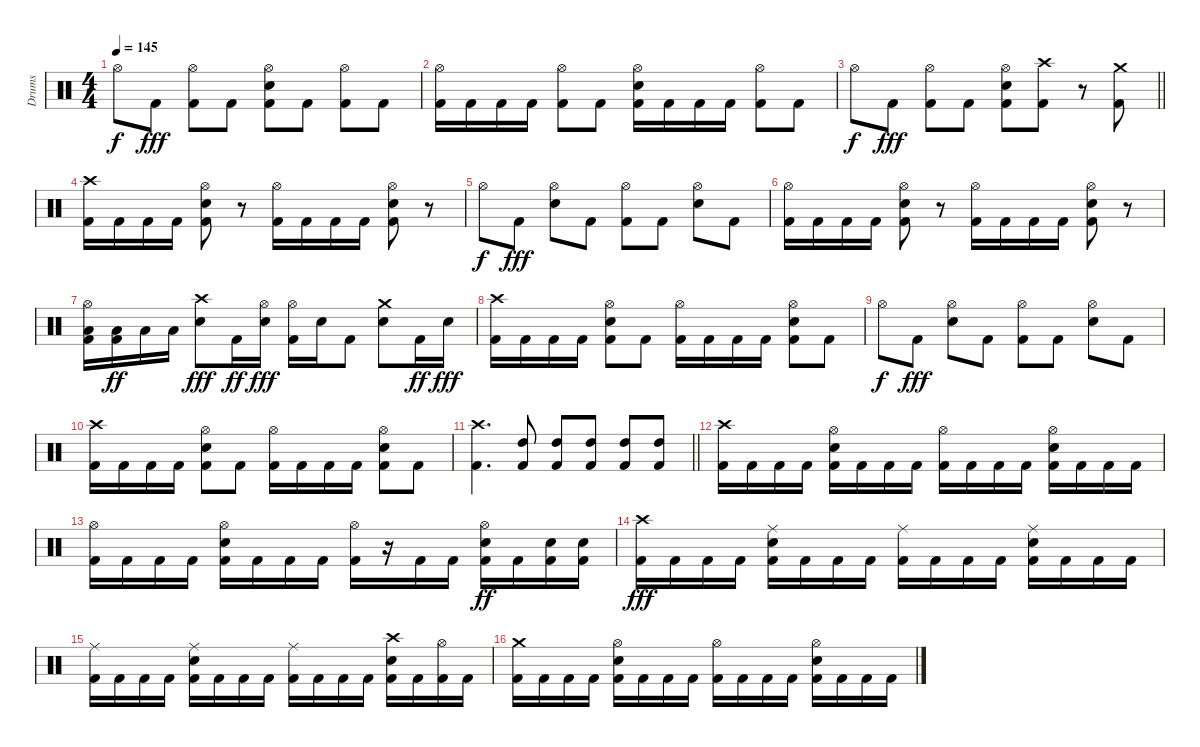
\track ("Drums" "Drums") {instrument percussion}
\staff {score}
\articulation defaults
\ts (4 4)
\tempo 145
\clef neutral
\ks c "Hi-Hat (open)".8{dy f} "Kick (hit) 2".8{dy fff}
("Hi-Hat (open)" "Kick (hit) 2").8 "Kick (hit) 2".8 ("Hi-Hat (open)" "Snare (hit) 2" "Kick (hit) 2").8 "Kick (hit) 2".8 ("Hi-Hat (open)" "Kick (hit) 2").8 "Kick (hit) 2".8 |
("Hi-Hat (open)" "Kick (hit) 2").16 "Kick (hit) 2".16 "Kick (hit) 2".16 "Kick (hit) 2".16 ("Hi-Hat (open)" "Kick (hit) 2").8 "Kick (hit) 2".8 ("Hi-Hat (open)" "Snare (hit) 2" "Kick (hit) 2").16 "Kick (hit) 2".16 "Kick (hit) 2".16 "Kick (hit) 2".16 ("Hi-Hat (open)" "Kick (hit) 2").8 "Kick (hit) 2".8 |
\barLineRight lightlight "Hi-Hat (open)".8{dy f} "Kick (hit) 2".8{dy fff}
("Hi-Hat (open)" "Kick (hit) 2").8 "Kick (hit) 2".8 ("Hi-Hat (open)" "Snare (hit) 2" "Kick (hit) 2").8 ("Crash high (hit)" "Kick (hit) 2").8 r.8{volume 0} ("Crash medium (hit)" "Kick (hit) 2").8{volume 16} |
("Crash high (hit)" "Kick (hit) 2").16 "Kick (hit) 2".16 "Kick (hit) 2".16 "Kick (hit) 2".16 ("Hi-Hat (open)" "Snare (hit) 2" "Kick (hit) 2").8 r.8 ("Hi-Hat (open)" "Kick (hit) 2").16 "Kick (hit) 2".16 "Kick (hit) 2".16 "Kick (hit) 2".16 ("Hi-Hat (open)" "Snare (hit) 2" "Kick (hit) 2").8 r.8 |
"Hi-Hat (open)".8{dy f} "Kick (hit) 2".8{dy fff} ("Hi-Hat (open)" "Snare (hit) 2").8 "Kick (hit) 2".8 ("Hi-Hat (open)" "Kick (hit) 2").8 "Kick (hit) 2".8 ("Hi-Hat (open)" "Snare (hit) 2").8 "Kick (hit) 2".8 |
("Hi-Hat (open)" "Kick (hit) 2").16 "Kick (hit) 2".16 "Kick (hit) 2".16 "Kick (hit) 2".16 ("Hi-Hat (open)" "Snare (hit) 2" "Kick (hit) 2").8 r.8 ("Hi-Hat (open)" "Kick (hit) 2").16 "Kick (hit) 2".16 "Kick (hit) 2".16 "Kick (hit) 2".16 ("Hi-Hat (open)" "Snare (hit) 2" "Kick (hit) 2").8 r.8 |
("Hi-Hat (open)" "Low Tom (hit)" "Kick (hit) 2").16 ("Low Tom (hit)" "Kick (hit) 2").16{dy ff} "Low Tom (hit)".16 "Low Tom (hit)".16 ("Crash high (hit)" "Snare (hit) 2").8{dy fff} "Kick (hit) 2".16{dy ff} ("Hi-Hat (open)" "Snare (hit) 2").16{dy fff} ("Hi-Hat (open)" "Kick (hit) 2").16 "Snare (hit) 2".16 "Kick (hit) 2".8 ("Crash medium (hit)" "Snare (hit) 2").8 "Kick (hit) 2".16{dy ff} "Snare (hit) 2".16{dy fff} |
("Crash high (hit)" "Kick (hit) 2").16 "Kick (hit) 2".16 "Kick (hit) 2".16 "Kick (hit) 2".16 ("Hi-Hat (open)" "Snare (hit) 2" "Kick (hit) 2").8 "Kick (hit) 2".8 ("Hi-Hat (open)" "Kick (hit) 2").16 "Kick (hit) 2".16 "Kick (hit) 2".16 "Kick (hit) 2".16 ("Hi-Hat (open)" "Snare (hit) 2" "Kick (hit) 2").8 "Kick (hit) 2".8 |
"Hi-Hat (open)".8{dy f} "Kick (hit) 2".8{dy fff} ("Hi-Hat (open)" "Snare (hit) 2").8 "Kick (hit) 2".8 ("Hi-Hat (open)" "Kick (hit) 2").8 "Kick (hit) 2".8 ("Hi-Hat (open)" "Snare (hit) 2").8 "Kick (hit) 2".8 |
("Crash high (hit)" "Kick (hit) 2").16 "Kick (hit) 2".16 "Kick (hit) 2".16 "Kick (hit) 2".16 ("Hi-Hat (open)" "Snare (hit) 2" "Kick (hit) 2").8 "Kick (hit) 2".8 ("Hi-Hat (open)" "Kick (hit) 2").16 "Kick (hit) 2".16 "Kick (hit) 2".16 "Kick (hit) 2".16 ("Hi-Hat (open)" "Snare (hit) 2" "Kick (hit) 2").8 "Kick (hit) 2".8 |
\barLineRight lightlight
("Crash high (hit)" "Kick (hit) 2").4{d} ("High Tom (hit)" "Kick (hit) 2").8 ("High Tom (hit)" "Kick (hit) 2").8 ("High Tom (hit)" "Kick (hit) 2").8 ("High Tom (hit)" "Kick (hit) 2").8 ("High Tom (hit)" "Kick (hit) 2").8 |
("Crash high (hit)" "Kick (hit) 2").16 "Kick (hit) 2".16 "Kick (hit) 2".16 "Kick (hit) 2".16 ("Hi-Hat (open)" "Snare (hit) 2" "Kick (hit) 2").16 "Kick (hit) 2".16 "Kick (hit) 2".16 "Kick (hit) 2".16 ("Hi-Hat (open)" "Kick (hit) 2").16 "Kick (hit) 2".16 "Kick (hit) 2".16 "Kick (hit) 2".16 ("Hi-Hat (open)" "Snare (hit) 2" "Kick (hit) 2").16 "Kick (hit) 2".16 "Kick (hit) 2".16 "Kick (hit) 2".16 |
("Hi-Hat (open)" "Kick (hit) 2").16 "Kick (hit) 2".16 "Kick (hit) 2".16 "Kick (hit) 2".16 ("Hi-Hat (open)" "Snare (hit) 2" "Kick (hit) 2").16 "Kick (hit) 2".16 "Kick (hit) 2".16 "Kick (hit) 2".16 ("Hi-Hat (open)" "Kick (hit) 2").16 r.16 "Kick (hit) 2".16 "Kick (hit) 2".16 ("Hi-Hat (open)" "Snare (hit) 2" "Kick (hit) 2").16{dy ff} "Kick (hit) 2".16 ("Snare (hit) 2" "Kick (hit) 2").16 ("Snare (hit) 2" "Kick (hit) 2").16 |
("Crash high (hit)" "Kick (hit) 2").16{dy fff} "Kick (hit) 2".16 "Kick (hit) 2".16 "Kick (hit) 2".16 ("Ride (middle)" "Snare (hit) 2" "Kick (hit) 2").16 "Kick (hit) 2".16 "Kick (hit) 2".16 "Kick (hit) 2".16 ("Ride (middle)" "Kick (hit) 2").16 "Kick (hit) 2".16 "Kick (hit) 2".16 "Kick (hit) 2".16 ("Ride (middle)" "Snare (hit) 2" "Kick (hit) 2").16 "Kick (hit) 2".16 "Kick (hit) 2".16 "Kick (hit) 2".16 |
("Ride (middle)" "Kick (hit) 2").16 "Kick (hit) 2".16 "Kick (hit) 2".16 "Kick (hit) 2".16 ("Ride (middle)" "Snare (hit) 2" "Kick (hit) 2").16 "Kick (hit) 2".16 "Kick (hit) 2".16 "Kick (hit) 2".16 ("Ride (middle)" "Kick (hit) 2").16 "Kick (hit) 2".16 "Kick (hit) 2".16 "Kick (hit) 2".16 ("Crash high (hit)" "Snare (hit) 2" "Kick (hit) 2").16 "Kick (hit) 2".16 ("Hi-Hat (open)" "Kick (hit) 2").16 "Kick (hit) 2".16 |
("Crash medium (hit)" "Kick (hit) 2").16 "Kick (hit) 2".16 "Kick (hit) 2".16 "Kick (hit) 2".16 ("Hi-Hat (open)" "Snare (hit) 2" "Kick (hit) 2").16 "Kick (hit) 2".16 "Kick (hit) 2".16 "Kick (hit) 2".16 ("Hi-Hat (open)" "Kick (hit) 2").16 "Kick (hit) 2".16 "Kick (hit) 2".16 "Kick (hit) 2".16 ("Hi-Hat (open)" "Snare (hit) 2" "Kick (hit) 2").16 "Kick (hit) 2".16 "Kick (hit) 2".16 "Kick (hit) 2".16
